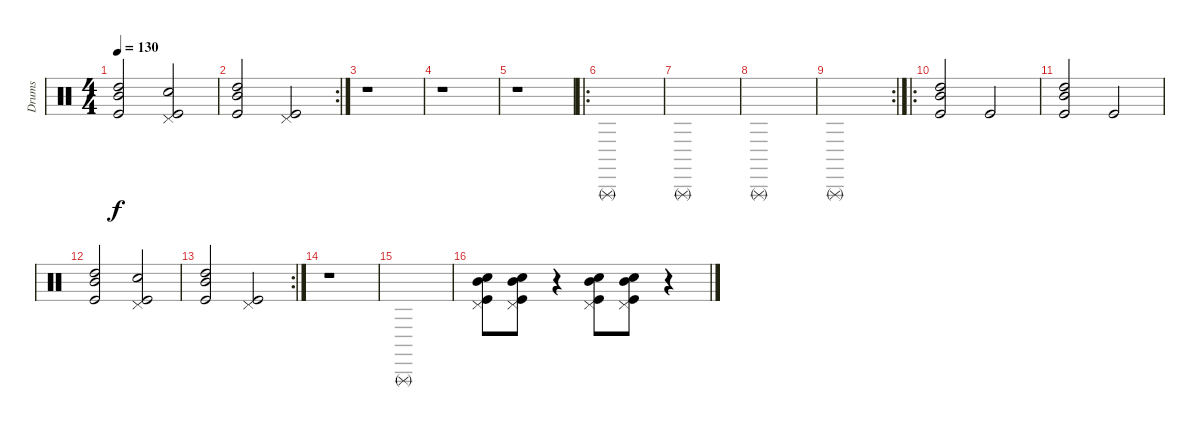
\track ("Drums" "Drums") {instrument percussion}
\staff {score}
\articulation defaults
\ts (4 4)
\tempo 130
\clef neutral
\ks c
("High Tom (hit)" "Mid Tom (hit)" "Kick (hit)").2{dy f} ("Pedal Hi-Hat (hit)" "Snare (hit) 2" "Kick (hit)").2 |
\rc 2
("High Tom (hit)" "Mid Tom (hit)" "Kick (hit)").2 ("Pedal Hi-Hat (hit)" "Kick (hit)").2 |
r.1 |
r.1 |
r.1 |
\ro "Triangle (rnute)".1
|
"Triangle (rnute)".1 |
"Triangle (rnute)".1 |
\rc 2 "Triangle (rnute)".1
|
\ro
("High Tom (hit)" "Mid Tom (hit)" "Kick (hit)").2 "Kick (hit)".2 |
("High Tom (hit)" "Mid Tom (hit)" "Kick (hit)").2 "Kick (hit)".2 |
("High Tom (hit)" "Mid Tom (hit)" "Kick (hit)").2 ("Pedal Hi-Hat (hit)" "Snare (hit) 2" "Kick (hit)").2 |
\rc 2
("High Tom (hit)" "Mid Tom (hit)" "Kick (hit)").2 ("Pedal Hi-Hat (hit)" "Kick (hit)").2 |
r.1 |
"Triangle (rnute)".1 |
("Pedal Hi-Hat (hit)" "Snare (hit) 2" "Mid Tom (hit)" "Kick (hit)").8 ("Pedal Hi-Hat (hit)" "Snare (hit) 2" "Mid Tom (hit)" "Kick (hit)").8 r.4 ("Pedal Hi-Hat (hit)" "Snare (hit) 2" "Mid Tom (hit)" "Kick (hit)").8 ("Pedal Hi-Hat (hit)" "Snare (hit) 2" "Mid Tom (hit)" "Kick (hit)").8 r.4
